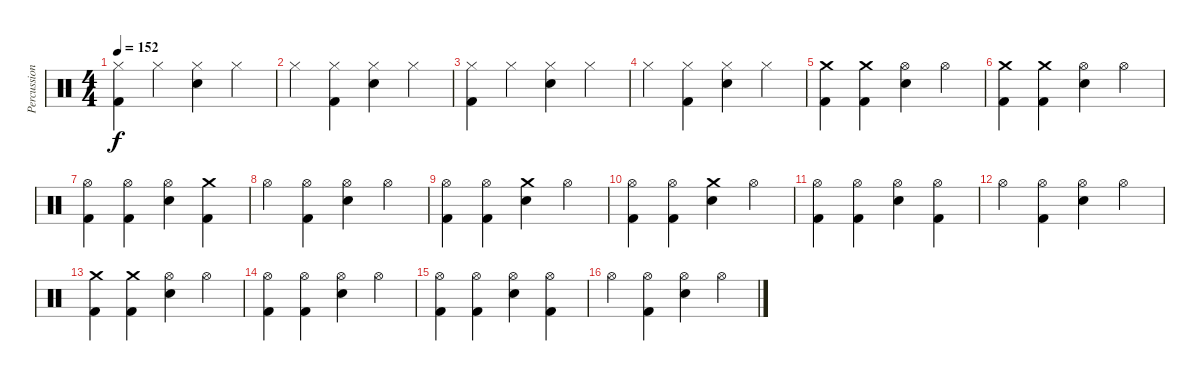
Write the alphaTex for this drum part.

\track ("Percussion" "Percussion") {instrument percussion}
\staff {score}
\articulation defaults
\ts (4 4)
\tempo 152
\clef neutral
\ks c
("Hi-Hat (closed)" "Kick (hit) 2").4{dy f} "Hi-Hat (closed)".4 ("Hi-Hat (closed)" "Electric Snare (hit)").4 "Hi-Hat (closed)".4 |
"Hi-Hat (closed)".4 ("Hi-Hat (closed)" "Kick (hit) 2").4 ("Hi-Hat (closed)" "Electric Snare (hit)").4 "Hi-Hat (closed)".4 |
("Hi-Hat (closed)" "Kick (hit) 2").4 "Hi-Hat (closed)".4 ("Hi-Hat (closed)" "Electric Snare (hit)").4 "Hi-Hat (closed)".4 |
"Hi-Hat (closed)".4 ("Hi-Hat (closed)" "Kick (hit) 2").4 ("Hi-Hat (closed)" "Electric Snare (hit)").4 "Hi-Hat (closed)".4 |
("Crash medium (hit)" "Kick (hit) 2").4 ("Crash medium (hit)" "Kick (hit) 2").4 ("Hi-Hat (open)" "Electric Snare (hit)").4 "Hi-Hat (open)".4 |
("Crash medium (hit)" "Kick (hit) 2").4 ("Crash medium (hit)" "Kick (hit) 2").4 ("Hi-Hat (open)" "Electric Snare (hit)").4 "Hi-Hat (open)".4 |
("Hi-Hat (open)" "Kick (hit) 2").4 ("Hi-Hat (open)" "Kick (hit) 2").4 ("Hi-Hat (open)" "Electric Snare (hit)").4 ("Crash medium (hit)" "Kick (hit) 2").4 |
"Hi-Hat (open)".4 ("Hi-Hat (open)" "Kick (hit) 2").4 ("Hi-Hat (open)" "Electric Snare (hit)").4 "Hi-Hat (open)".4 |
("Hi-Hat (open)" "Kick (hit) 2").4 ("Hi-Hat (open)" "Kick (hit) 2").4 ("Crash medium (hit)" "Electric Snare (hit)").4 "Hi-Hat (open)".4 |
("Hi-Hat (open)" "Kick (hit) 2").4 ("Hi-Hat (open)" "Kick (hit) 2").4 ("Crash medium (hit)" "Electric Snare (hit)").4 "Hi-Hat (open)".4 |
("Hi-Hat (open)" "Kick (hit) 2").4 ("Hi-Hat (open)" "Kick (hit) 2").4 ("Hi-Hat (open)" "Electric Snare (hit)").4 ("Hi-Hat (open)" "Kick (hit) 2").4 |
"Hi-Hat (open)".4 ("Hi-Hat (open)" "Kick (hit) 2").4 ("Hi-Hat (open)" "Electric Snare (hit)").4 "Hi-Hat (open)".4 |
("Crash medium (hit)" "Kick (hit) 2").4 ("Crash medium (hit)" "Kick (hit) 2").4 ("Hi-Hat (open)" "Electric Snare (hit)").4 "Hi-Hat (open)".4 |
("Hi-Hat (open)" "Kick (hit) 2").4 ("Hi-Hat (open)" "Kick (hit) 2").4 ("Hi-Hat (open)" "Electric Snare (hit)").4 "Hi-Hat (open)".4 |
("Hi-Hat (open)" "Kick (hit) 2").4 ("Hi-Hat (open)" "Kick (hit) 2").4 ("Hi-Hat (open)" "Electric Snare (hit)").4 ("Hi-Hat (open)" "Kick (hit) 2").4 |
"Hi-Hat (open)".4 ("Hi-Hat (open)" "Kick (hit) 2").4 ("Hi-Hat (open)" "Electric Snare (hit)").4 "Hi-Hat (open)".4
